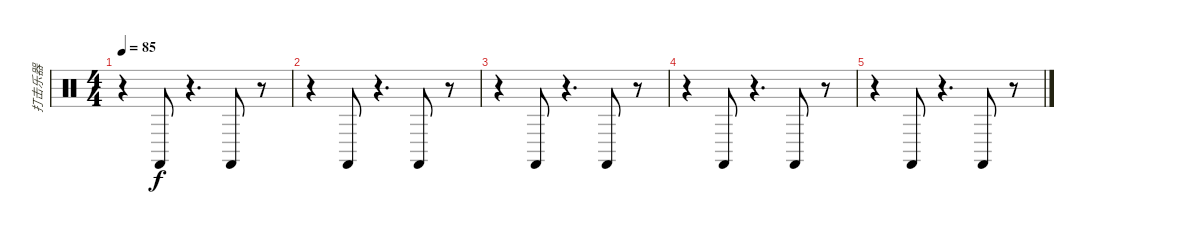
\track ("打击乐器" "打击乐器") {instrument percussion}
\staff {score}
\articulation defaults
\ts (4 4)
\tempo 85
\clef neutral
\ks c
r.4{dy f} "Castanets (hit)".8 r.4{d} "Castanets (hit)".8 r.8 |
r.4 "Castanets (hit)".8 r.4{d} "Castanets (hit)".8 r.8 |
r.4 "Castanets (hit)".8 r.4{d} "Castanets (hit)".8 r.8 |
r.4 "Castanets (hit)".8 r.4{d} "Castanets (hit)".8 r.8 |
r.4 "Castanets (hit)".8 r.4{d} "Castanets (hit)".8 r.8
